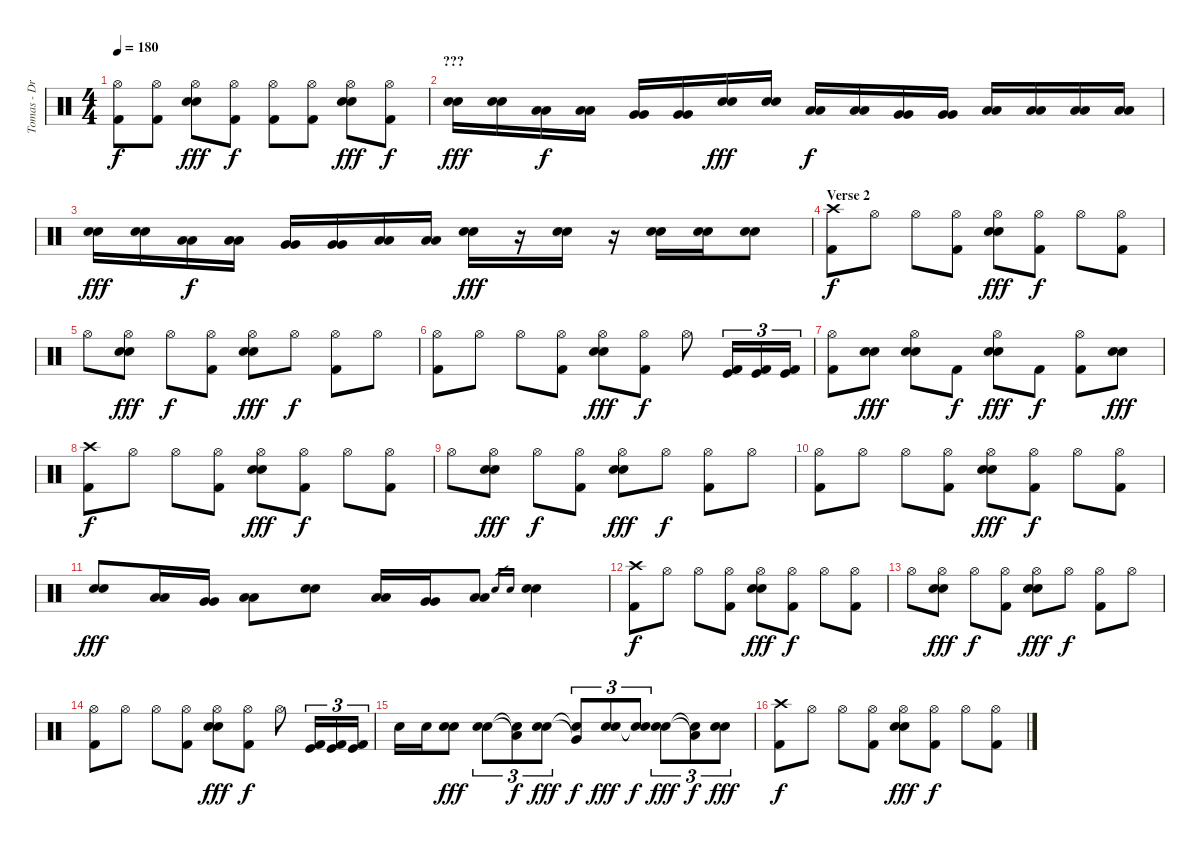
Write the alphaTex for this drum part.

\track ("Tomas - Drums" "Tomas - Dr") {instrument percussion}
\staff {score}
\articulation defaults
\ts (4 4)
\tempo 180
\clef neutral
\ks c
("Hi-Hat (open)" "Kick (hit) 2").8{dy f} ("Hi-Hat (open)" "Kick (hit) 2").8 ("Hi-Hat (open)" "Electric Snare (hit)" "Electric Snare (hit)").8{dy fff} ("Hi-Hat (open)" "Kick (hit) 2").8{dy f} ("Hi-Hat (open)" "Kick (hit) 2").8 ("Hi-Hat (open)" "Kick (hit) 2").8 ("Hi-Hat (open)" "Electric Snare (hit)" "Electric Snare (hit)").8{dy fff} ("Hi-Hat (open)" "Kick (hit) 2").8{dy f} |
\section ("" "???")
("Electric Snare (hit)" "Electric Snare (hit)").16{dy fff} ("Electric Snare (hit)" "Electric Snare (hit)").16 ("Low Tom (hit)" "Low Tom (hit)").16{dy f} ("Low Tom (hit)" "Low Tom (hit)").16 ("Very Low Tom (hit)" "Very Low Tom (hit)").16 ("Very Low Tom (hit)" "Very Low Tom (hit)").16 ("Electric Snare (hit)" "Electric Snare (hit)").16{dy fff} ("Electric Snare (hit)" "Electric Snare (hit)").16 ("Low Tom (hit)" "Low Tom (hit)").16{dy f} ("Low Tom (hit)" "Low Tom (hit)").16 ("Very Low Tom (hit)" "Very Low Tom (hit)").16 ("Very Low Tom (hit)" "Very Low Tom (hit)").16 ("Low Tom (hit)" "Low Tom (hit)").16 ("Low Tom (hit)" "Low Tom (hit)").16 ("Low Floor Tom (hit)" "Low Floor Tom (hit)").16 ("Low Floor Tom (hit)" "Low Floor Tom (hit)").16 |
("Electric Snare (hit)" "Electric Snare (hit)").16{dy fff} ("Electric Snare (hit)" "Electric Snare (hit)").16 ("Low Tom (hit)" "Low Tom (hit)").16{dy f} ("Low Tom (hit)" "Low Tom (hit)").16 ("Very Low Tom (hit)" "Very Low Tom (hit)").16 ("Very Low Tom (hit)" "Very Low Tom (hit)").16 ("Low Floor Tom (hit)" "Low Floor Tom (hit)").16 ("Low Floor Tom (hit)" "Low Floor Tom (hit)").16 ("Electric Snare (hit)" "Electric Snare (hit)").16{dy fff} r.16 ("Electric Snare (hit)" "Electric Snare (hit)").16 r.16 ("Electric Snare (hit)" "Electric Snare (hit)").16 ("Electric Snare (hit)" "Electric Snare (hit)").16 ("Electric Snare (hit)" "Electric Snare (hit)").8 |
\section ("" "Verse 2")
("Crash high (hit)" "Kick (hit) 2").8{dy f} "Hi-Hat (open)".8 "Hi-Hat (open)".8 ("Hi-Hat (open)" "Kick (hit) 2").8 ("Hi-Hat (open)" "Electric Snare (hit)" "Electric Snare (hit)").8{dy fff} ("Hi-Hat (open)" "Kick (hit) 2").8{dy f} "Hi-Hat (open)".8 ("Hi-Hat (open)" "Kick (hit) 2").8 |
"Hi-Hat (open)".8 ("Hi-Hat (open)" "Electric Snare (hit)" "Electric Snare (hit)").8{dy fff} "Hi-Hat (open)".8{dy f} ("Hi-Hat (open)" "Kick (hit) 2").8 ("Hi-Hat (open)" "Electric Snare (hit)" "Electric Snare (hit)").8{dy fff} "Hi-Hat (open)".8{dy f} ("Hi-Hat (open)" "Kick (hit) 2").8 "Hi-Hat (open)".8 |
("Hi-Hat (open)" "Kick (hit) 2").8 "Hi-Hat (open)".8 "Hi-Hat (open)".8 ("Hi-Hat (open)" "Kick (hit) 2").8 ("Hi-Hat (open)" "Electric Snare (hit)" "Electric Snare (hit)").8{dy fff} ("Hi-Hat (open)" "Kick (hit) 2").8{dy f} "Hi-Hat (open)".8 ("Kick (hit)" "Kick (hit) 2").16{tu (3 2)} ("Kick (hit)" "Kick (hit) 2").16{tu (3 2)} ("Kick (hit)" "Kick (hit) 2").16{tu (3 2)} |
("Hi-Hat (open)" "Kick (hit) 2").8 ("Electric Snare (hit)" "Electric Snare (hit)").8{dy fff} ("Hi-Hat (open)" "Electric Snare (hit)" "Electric Snare (hit)").8 "Kick (hit) 2".8{dy f} ("Hi-Hat (open)" "Electric Snare (hit)" "Electric Snare (hit)").8{dy fff} "Kick (hit) 2".8{dy f} ("Hi-Hat (open)" "Kick (hit) 2").8 ("Electric Snare (hit)" "Electric Snare (hit)").8{dy fff} |
("Crash high (hit)" "Kick (hit) 2").8{dy f} "Hi-Hat (open)".8 "Hi-Hat (open)".8 ("Hi-Hat (open)" "Kick (hit) 2").8 ("Hi-Hat (open)" "Electric Snare (hit)" "Electric Snare (hit)").8{dy fff} ("Hi-Hat (open)" "Kick (hit) 2").8{dy f} "Hi-Hat (open)".8 ("Hi-Hat (open)" "Kick (hit) 2").8 |
"Hi-Hat (open)".8 ("Hi-Hat (open)" "Electric Snare (hit)" "Electric Snare (hit)").8{dy fff} "Hi-Hat (open)".8{dy f} ("Hi-Hat (open)" "Kick (hit) 2").8 ("Hi-Hat (open)" "Electric Snare (hit)" "Electric Snare (hit)").8{dy fff} "Hi-Hat (open)".8{dy f} ("Hi-Hat (open)" "Kick (hit) 2").8 "Hi-Hat (open)".8 |
("Hi-Hat (open)" "Kick (hit) 2").8 "Hi-Hat (open)".8 "Hi-Hat (open)".8 ("Hi-Hat (open)" "Kick (hit) 2").8 ("Hi-Hat (open)" "Electric Snare (hit)" "Electric Snare (hit)").8{dy fff} ("Hi-Hat (open)" "Kick (hit) 2").8{dy f} "Hi-Hat (open)".8 ("Hi-Hat (open)" "Kick (hit) 2").8 |
("Electric Snare (hit)" "Electric Snare (hit)").8{dy fff} ("Low Tom (hit)" "Low Tom (hit)").16 ("Very Low Tom (hit)" "Very Low Tom (hit)").16 ("Low Floor Tom (hit)" "Low Floor Tom (hit)").8 ("Electric Snare (hit)" "Electric Snare (hit)").8 ("Low Tom (hit)" "Low Tom (hit)").16 ("Very Low Tom (hit)" "Very Low Tom (hit)").16 ("Low Floor Tom (hit)" "Low Floor Tom (hit)").8 "Electric Snare (hit)".16{gr} "Electric Snare (hit)".16{gr} ("Electric Snare (hit)" "Electric Snare (hit)").4 |
("Crash high (hit)" "Kick (hit) 2").8{dy f} "Hi-Hat (open)".8 "Hi-Hat (open)".8 ("Hi-Hat (open)" "Kick (hit) 2").8 ("Hi-Hat (open)" "Electric Snare (hit)" "Electric Snare (hit)").8{dy fff} ("Hi-Hat (open)" "Kick (hit) 2").8{dy f} "Hi-Hat (open)".8 ("Hi-Hat (open)" "Kick (hit) 2").8 |
"Hi-Hat (open)".8 ("Hi-Hat (open)" "Electric Snare (hit)" "Electric Snare (hit)").8{dy fff} "Hi-Hat (open)".8{dy f} ("Hi-Hat (open)" "Kick (hit) 2").8 ("Hi-Hat (open)" "Electric Snare (hit)" "Electric Snare (hit)").8{dy fff} "Hi-Hat (open)".8{dy f} ("Hi-Hat (open)" "Kick (hit) 2").8 "Hi-Hat (open)".8 |
("Hi-Hat (open)" "Kick (hit) 2").8 "Hi-Hat (open)".8 "Hi-Hat (open)".8 ("Hi-Hat (open)" "Kick (hit) 2").8 ("Hi-Hat (open)" "Electric Snare (hit)" "Electric Snare (hit)").8{dy fff} ("Hi-Hat (open)" "Kick (hit) 2").8{dy f} "Hi-Hat (open)".8 ("Kick (hit)" "Kick (hit) 2").16{tu (3 2)} ("Kick (hit)" "Kick (hit) 2").16{tu (3 2)} ("Kick (hit)" "Kick (hit) 2").16{tu (3 2)} |
"Electric Snare (hit)".16 "Electric Snare (hit)".16 ("Electric Snare (hit)" "Electric Snare (hit)").8{dy fff} ("Electric Snare (hit)" "Electric Snare (hit)").8{tu (3 2)} ("Low Tom (hit)"{t} "Electric Snare (hit)"{t}).8{tu (3 2) dy f} ("Electric Snare (hit)" "Electric Snare (hit)").8{tu (3 2) dy fff} ("Very Low Tom (hit)"{t} "Electric Snare (hit)"{t}).8{tu (3 2) dy f} ("Electric Snare (hit)" "Electric Snare (hit)").8{tu (3 2) dy fff} ("Electric Snare (hit)"{t} "Electric Snare (hit)"{t}).8{tu (3 2) dy f} ("Electric Snare (hit)" "Electric Snare (hit)").8{tu (3 2) dy fff} ("Electric Snare (hit)"{t} "Low Floor Tom (hit)"{t}).8{tu (3 2) dy f} ("Electric Snare (hit)" "Electric Snare (hit)").8{tu (3 2) dy fff} |
("Crash high (hit)" "Kick (hit) 2").8{dy f} "Hi-Hat (open)".8 "Hi-Hat (open)".8 ("Hi-Hat (open)" "Kick (hit) 2").8 ("Hi-Hat (open)" "Electric Snare (hit)" "Electric Snare (hit)").8{dy fff} ("Hi-Hat (open)" "Kick (hit) 2").8{dy f} "Hi-Hat (open)".8 ("Hi-Hat (open)" "Kick (hit) 2").8
